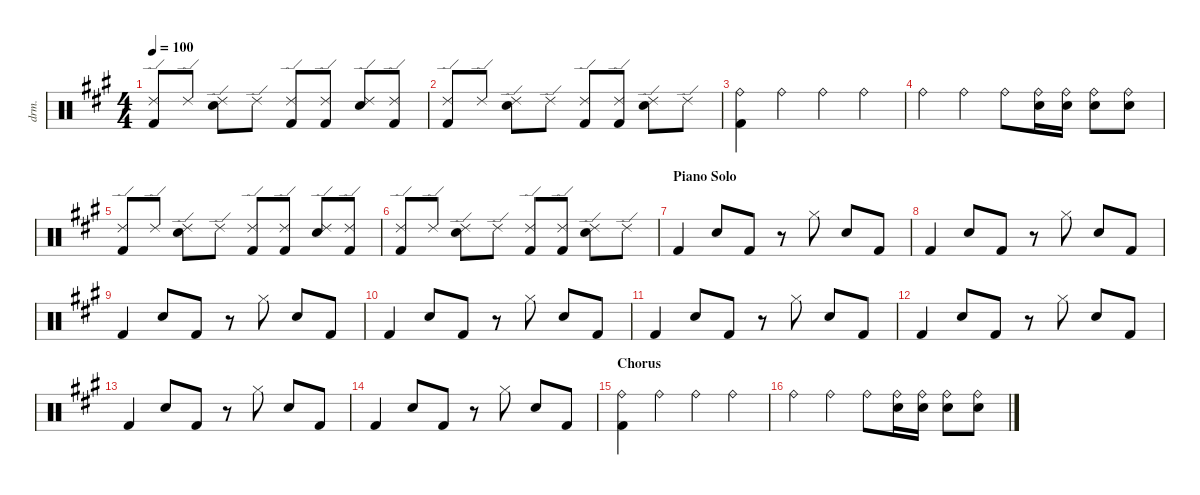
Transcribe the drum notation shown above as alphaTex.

\defaultSystemsLayout 4
\hideDynamics
\bracketExtendMode nobrackets
\track ("Drums" "drm.") {instrument percussion}
\staff {score}
\articulation defaults
\ts (4 4)
\tempo 100
\clef neutral
\ks a
("Ride (edge) 2"{acc forcenatural} "Kick (hit) 2"{acc forcenatural}).8{dy f} "Ride (edge) 2"{acc forcenatural}.8 ("Ride (edge) 2"{acc forcenatural} "Snare (hit) 2"{acc forcenatural}).8 "Ride (edge) 2"{acc forcenatural}.8 ("Ride (edge) 2"{acc forcenatural} "Kick (hit) 2"{acc forcenatural}).8 ("Ride (edge) 2"{acc forcenatural} "Kick (hit) 2"{acc forcenatural}).8 ("Ride (edge) 2"{acc forcenatural} "Snare (hit) 2"{acc forcenatural}).8 ("Ride (edge) 2"{acc forcenatural} "Kick (hit) 2"{acc forcenatural}).8 |
("Ride (edge) 2"{acc forcenatural} "Kick (hit) 2"{acc forcenatural}).8 "Ride (edge) 2"{acc forcenatural}.8 ("Ride (edge) 2"{acc forcenatural} "Snare (hit) 2"{acc forcenatural}).8 "Ride (edge) 2"{acc forcenatural}.8 ("Ride (edge) 2"{acc forcenatural} "Kick (hit) 2"{acc forcenatural}).8 ("Ride (edge) 2"{acc forcenatural} "Kick (hit) 2"{acc forcenatural}).8 ("Ride (edge) 2"{acc forcenatural} "Snare (hit) 2"{acc forcenatural}).8 "Ride (edge) 2"{acc forcenatural}.8 |
("Ride (bell)"{acc forcenatural} "Kick (hit) 2"{acc forcenatural}).4 "Ride (bell)"{acc forcenatural}.4 "Ride (bell)"{acc forcenatural}.4 "Ride (bell)"{acc forcenatural}.4 |
"Ride (bell)"{acc forcenatural}.4 "Ride (bell)"{acc forcenatural}.4 "Ride (bell)"{acc forcenatural}.8 ("Ride (bell)"{acc forcenatural} "Snare (hit) 2"{acc forcenatural}).16 ("Ride (bell)"{acc forcenatural} "Snare (hit) 2"{acc forcenatural}).16 ("Ride (bell)"{acc forcenatural} "Snare (hit) 2"{acc forcenatural}).8 ("Ride (bell)"{acc forcenatural} "Snare (hit) 2"{acc forcenatural}).8 |
("Ride (edge) 2"{acc forcenatural} "Kick (hit) 2"{acc forcenatural}).8 "Ride (edge) 2"{acc forcenatural}.8 ("Ride (edge) 2"{acc forcenatural} "Snare (hit) 2"{acc forcenatural}).8 "Ride (edge) 2"{acc forcenatural}.8 ("Ride (edge) 2"{acc forcenatural} "Kick (hit) 2"{acc forcenatural}).8 ("Ride (edge) 2"{acc forcenatural} "Kick (hit) 2"{acc forcenatural}).8 ("Ride (edge) 2"{acc forcenatural} "Snare (hit) 2"{acc forcenatural}).8 ("Ride (edge) 2"{acc forcenatural} "Kick (hit) 2"{acc forcenatural}).8 |
("Ride (edge) 2"{acc forcenatural} "Kick (hit) 2"{acc forcenatural}).8 "Ride (edge) 2"{acc forcenatural}.8 ("Ride (edge) 2"{acc forcenatural} "Snare (hit) 2"{acc forcenatural}).8 "Ride (edge) 2"{acc forcenatural}.8 ("Ride (edge) 2"{acc forcenatural} "Kick (hit) 2"{acc forcenatural}).8 ("Ride (edge) 2"{acc forcenatural} "Kick (hit) 2"{acc forcenatural}).8 ("Ride (edge) 2"{acc forcenatural} "Snare (hit) 2"{acc forcenatural}).8 "Ride (edge) 2"{acc forcenatural}.8 |
\section ("" "Piano Solo")
"Kick (hit) 2"{acc forcenatural}.4 "Snare (hit) 2"{acc forcenatural}.8 "Kick (hit) 2"{acc forcenatural}.8 r.8 "Hi-Hat (closed)"{acc forcenatural}.8 "Snare (hit) 2"{acc forcenatural}.8 "Kick (hit) 2"{acc forcenatural}.8 |
"Kick (hit) 2"{acc forcenatural}.4 "Snare (hit) 2"{acc forcenatural}.8 "Kick (hit) 2"{acc forcenatural}.8 r.8 "Hi-Hat (closed)"{acc forcenatural}.8 "Snare (hit) 2"{acc forcenatural}.8 "Kick (hit) 2"{acc forcenatural}.8 |
"Kick (hit) 2"{acc forcenatural}.4 "Snare (hit) 2"{acc forcenatural}.8 "Kick (hit) 2"{acc forcenatural}.8 r.8 "Hi-Hat (closed)"{acc forcenatural}.8 "Snare (hit) 2"{acc forcenatural}.8 "Kick (hit) 2"{acc forcenatural}.8 |
"Kick (hit) 2"{acc forcenatural}.4 "Snare (hit) 2"{acc forcenatural}.8 "Kick (hit) 2"{acc forcenatural}.8 r.8 "Hi-Hat (closed)"{acc forcenatural}.8 "Snare (hit) 2"{acc forcenatural}.8 "Kick (hit) 2"{acc forcenatural}.8 |
"Kick (hit) 2"{acc forcenatural}.4 "Snare (hit) 2"{acc forcenatural}.8 "Kick (hit) 2"{acc forcenatural}.8 r.8 "Hi-Hat (closed)"{acc forcenatural}.8 "Snare (hit) 2"{acc forcenatural}.8 "Kick (hit) 2"{acc forcenatural}.8 |
"Kick (hit) 2"{acc forcenatural}.4 "Snare (hit) 2"{acc forcenatural}.8 "Kick (hit) 2"{acc forcenatural}.8 r.8 "Hi-Hat (closed)"{acc forcenatural}.8 "Snare (hit) 2"{acc forcenatural}.8 "Kick (hit) 2"{acc forcenatural}.8 |
"Kick (hit) 2"{acc forcenatural}.4 "Snare (hit) 2"{acc forcenatural}.8 "Kick (hit) 2"{acc forcenatural}.8 r.8 "Hi-Hat (closed)"{acc forcenatural}.8 "Snare (hit) 2"{acc forcenatural}.8 "Kick (hit) 2"{acc forcenatural}.8 |
"Kick (hit) 2"{acc forcenatural}.4 "Snare (hit) 2"{acc forcenatural}.8 "Kick (hit) 2"{acc forcenatural}.8 r.8 "Hi-Hat (closed)"{acc forcenatural}.8 "Snare (hit) 2"{acc forcenatural}.8 "Kick (hit) 2"{acc forcenatural}.8 |
\section ("" "Chorus")
("Ride (bell)"{acc forcenatural} "Kick (hit) 2"{acc forcenatural}).4 "Ride (bell)"{acc forcenatural}.4 "Ride (bell)"{acc forcenatural}.4 "Ride (bell)"{acc forcenatural}.4 |
"Ride (bell)"{acc forcenatural}.4 "Ride (bell)"{acc forcenatural}.4 "Ride (bell)"{acc forcenatural}.8 ("Ride (bell)"{acc forcenatural} "Snare (hit) 2"{acc forcenatural}).16 ("Ride (bell)"{acc forcenatural} "Snare (hit) 2"{acc forcenatural}).16 ("Ride (bell)"{acc forcenatural} "Snare (hit) 2"{acc forcenatural}).8 ("Ride (bell)"{acc forcenatural} "Snare (hit) 2"{acc forcenatural}).8
